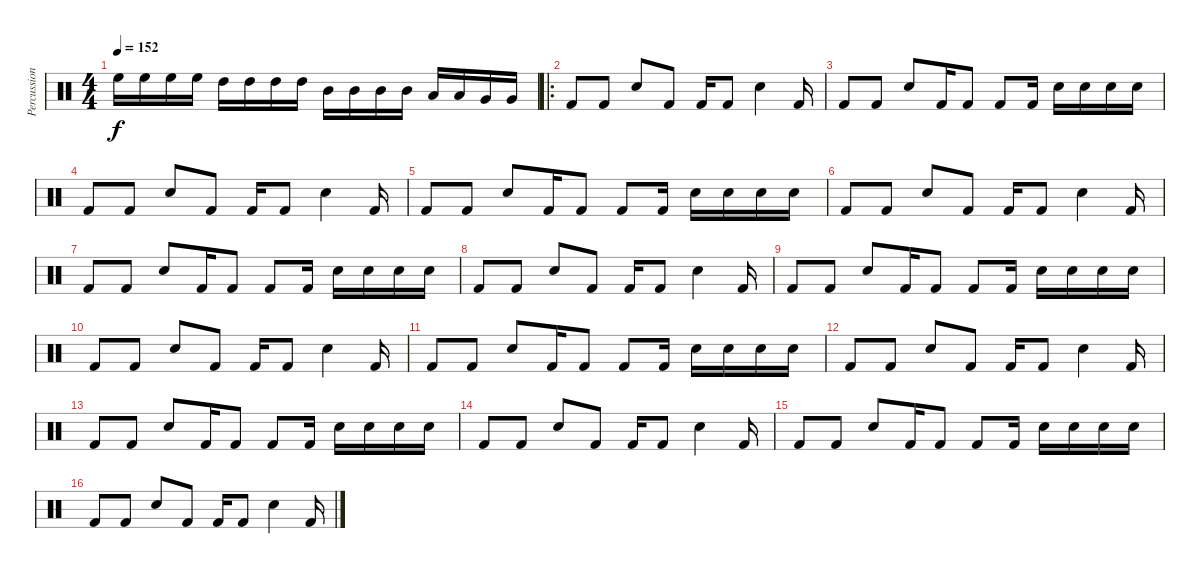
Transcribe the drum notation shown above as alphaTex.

\track ("Percussion" "Percussion") {instrument percussion}
\staff {score}
\articulation defaults
\ts (4 4)
\tempo 152
\clef neutral
\ks c "High Floor Tom (hit)".16{dy f} "High Floor Tom (hit)".16 "High Floor Tom (hit)".16 "High Floor Tom (hit)".16 "High Tom (hit)".16 "High Tom (hit)".16 "High Tom (hit)".16 "High Tom (hit)".16 "Mid Tom (hit)".16 "Mid Tom (hit)".16 "Mid Tom (hit)".16 "Mid Tom (hit)".16 "Low Tom (hit)".16 "Low Tom (hit)".16 "Very Low Tom (hit)".16 "Very Low Tom (hit)".16
|
\ro "Kick (hit) 2".8 "Kick (hit) 2".8 "Electric Snare (hit)".8 "Kick (hit) 2".8 "Kick (hit) 2".16 "Kick (hit) 2".8 "Electric Snare (hit)".4 "Kick (hit) 2".16
|
"Kick (hit) 2".8 "Kick (hit) 2".8 "Electric Snare (hit)".8 "Kick (hit) 2".16 "Kick (hit) 2".8 "Kick (hit) 2".8 "Kick (hit) 2".16 "Electric Snare (hit)".16 "Electric Snare (hit)".16 "Electric Snare (hit)".16 "Electric Snare (hit)".16 |
"Kick (hit) 2".8 "Kick (hit) 2".8 "Electric Snare (hit)".8 "Kick (hit) 2".8 "Kick (hit) 2".16 "Kick (hit) 2".8 "Electric Snare (hit)".4 "Kick (hit) 2".16 |
"Kick (hit) 2".8 "Kick (hit) 2".8 "Electric Snare (hit)".8 "Kick (hit) 2".16 "Kick (hit) 2".8 "Kick (hit) 2".8 "Kick (hit) 2".16 "Electric Snare (hit)".16 "Electric Snare (hit)".16 "Electric Snare (hit)".16 "Electric Snare (hit)".16 |
"Kick (hit) 2".8 "Kick (hit) 2".8 "Electric Snare (hit)".8 "Kick (hit) 2".8 "Kick (hit) 2".16 "Kick (hit) 2".8 "Electric Snare (hit)".4 "Kick (hit) 2".16 |
"Kick (hit) 2".8 "Kick (hit) 2".8 "Electric Snare (hit)".8 "Kick (hit) 2".16 "Kick (hit) 2".8 "Kick (hit) 2".8 "Kick (hit) 2".16 "Electric Snare (hit)".16 "Electric Snare (hit)".16 "Electric Snare (hit)".16 "Electric Snare (hit)".16 |
"Kick (hit) 2".8 "Kick (hit) 2".8 "Electric Snare (hit)".8 "Kick (hit) 2".8 "Kick (hit) 2".16 "Kick (hit) 2".8 "Electric Snare (hit)".4 "Kick (hit) 2".16 |
"Kick (hit) 2".8 "Kick (hit) 2".8 "Electric Snare (hit)".8 "Kick (hit) 2".16 "Kick (hit) 2".8 "Kick (hit) 2".8 "Kick (hit) 2".16 "Electric Snare (hit)".16 "Electric Snare (hit)".16 "Electric Snare (hit)".16 "Electric Snare (hit)".16 |
"Kick (hit) 2".8 "Kick (hit) 2".8 "Electric Snare (hit)".8 "Kick (hit) 2".8 "Kick (hit) 2".16 "Kick (hit) 2".8 "Electric Snare (hit)".4 "Kick (hit) 2".16 |
"Kick (hit) 2".8 "Kick (hit) 2".8 "Electric Snare (hit)".8 "Kick (hit) 2".16 "Kick (hit) 2".8 "Kick (hit) 2".8 "Kick (hit) 2".16 "Electric Snare (hit)".16 "Electric Snare (hit)".16 "Electric Snare (hit)".16 "Electric Snare (hit)".16 |
"Kick (hit) 2".8 "Kick (hit) 2".8 "Electric Snare (hit)".8 "Kick (hit) 2".8 "Kick (hit) 2".16 "Kick (hit) 2".8 "Electric Snare (hit)".4 "Kick (hit) 2".16 |
"Kick (hit) 2".8 "Kick (hit) 2".8 "Electric Snare (hit)".8 "Kick (hit) 2".16 "Kick (hit) 2".8 "Kick (hit) 2".8 "Kick (hit) 2".16 "Electric Snare (hit)".16 "Electric Snare (hit)".16 "Electric Snare (hit)".16 "Electric Snare (hit)".16 |
"Kick (hit) 2".8 "Kick (hit) 2".8 "Electric Snare (hit)".8 "Kick (hit) 2".8 "Kick (hit) 2".16 "Kick (hit) 2".8 "Electric Snare (hit)".4 "Kick (hit) 2".16 |
"Kick (hit) 2".8 "Kick (hit) 2".8 "Electric Snare (hit)".8 "Kick (hit) 2".16 "Kick (hit) 2".8 "Kick (hit) 2".8 "Kick (hit) 2".16 "Electric Snare (hit)".16 "Electric Snare (hit)".16 "Electric Snare (hit)".16 "Electric Snare (hit)".16 |
"Kick (hit) 2".8 "Kick (hit) 2".8 "Electric Snare (hit)".8 "Kick (hit) 2".8 "Kick (hit) 2".16 "Kick (hit) 2".8 "Electric Snare (hit)".4 "Kick (hit) 2".16
